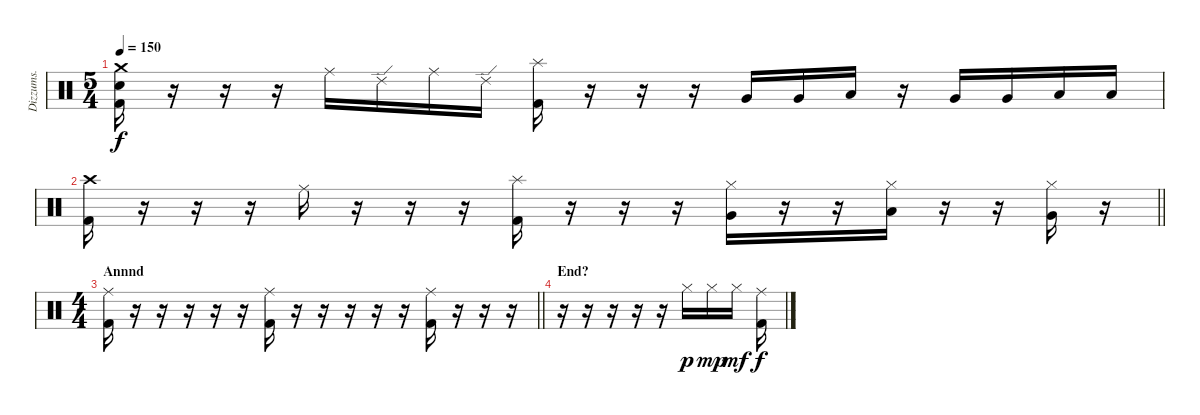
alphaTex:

\track ("Dizzums." "Dizzums.") {instrument percussion}
\staff {score}
\articulation defaults
\ts (5 4)
\tempo 150
\clef neutral
\ks c
("Crash medium (hit)" "Electric Snare (hit)" "Kick (hit) 2").16{dy f} r.16 r.16 r.16 "Ride (middle)".16 "Ride (edge) 2".16 "Ride (middle)".16 "Ride (edge) 2".16 ("Splash (hit)" "Kick (hit) 2").16 r.16 r.16 r.16 "Very Low Tom (hit)".16 "Very Low Tom (hit)".16 "Low Tom (hit)".16 r.16 "Very Low Tom (hit)".16 "Very Low Tom (hit)".16 "Low Floor Tom (hit)".16 "Low Floor Tom (hit)".16 |
\barLineRight lightlight
("Crash high (hit)" "Kick (hit) 2").16 r.16 r.16 r.16 "Ride (middle)".16 r.16 r.16 r.16 ("Splash (hit)" "Kick (hit) 2").16 r.16 r.16 r.16 ("Hi-Hat (closed)" "Very Low Tom (hit)").16 r.16 r.16 ("Hi-Hat (closed)" "Low Floor Tom (hit)").16 r.16 r.16 ("Hi-Hat (closed)" "Very Low Tom (hit)").16 r.16 |
\ts (4 4)
\section ("" "Annnd")
\barLineRight lightlight
("Ride (middle)" "Kick (hit) 2").16 r.16 r.16 r.16 r.16 r.16 ("Ride (middle)" "Kick (hit) 2").16 r.16 r.16 r.16 r.16 r.16 ("Ride (middle)" "Kick (hit) 2").16 r.16 r.16 r.16 |
\section ("" "End?")
r.16 r.16 r.16 r.16 r.16 "Hi-Hat (closed)".16{dy p} "Hi-Hat (closed)".16{dy mp} "Hi-Hat (closed)".16{dy mf} ("Ride (middle)" "Kick (hit) 2").16{dy f}
